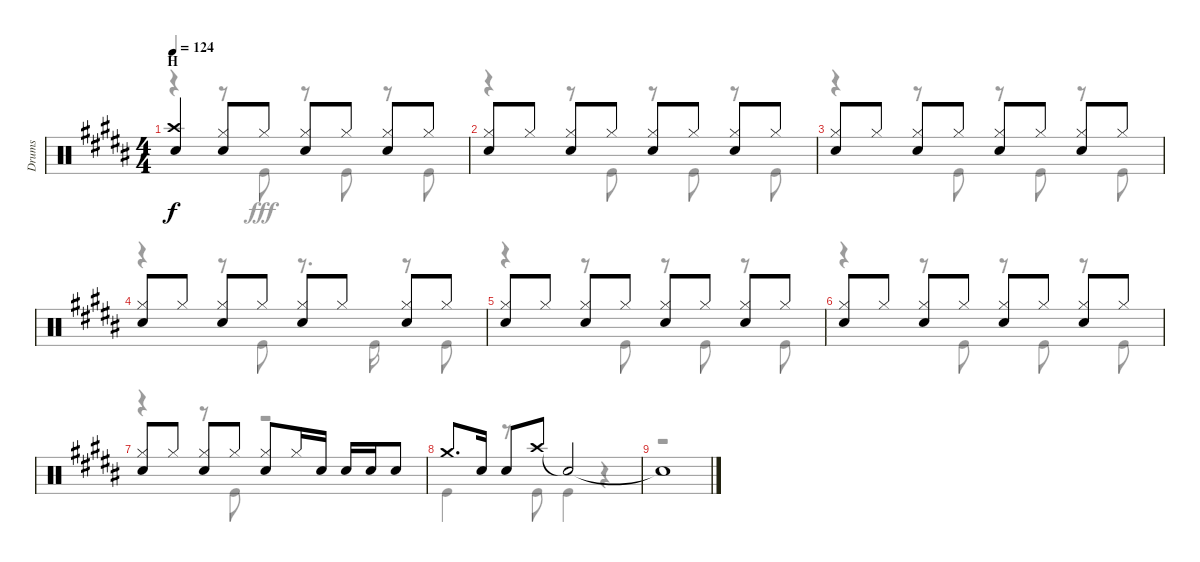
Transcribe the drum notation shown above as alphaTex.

\track ("Drums" "Drums") {instrument percussion}
\staff {score}
\articulation defaults
\voice
\ts (4 4)
\section ("" "H")
\tempo 124
\clef neutral
\ks b
("Crash high (hit)" "Snare (hit) 2").4{dy f} ("Hi-Hat (closed)" "Snare (hit) 2").8 "Hi-Hat (closed)".8 ("Hi-Hat (closed)" "Snare (hit) 2").8 "Hi-Hat (closed)".8 ("Hi-Hat (closed)" "Snare (hit) 2").8 "Hi-Hat (closed)".8 |
("Hi-Hat (closed)" "Snare (hit) 2").8 "Hi-Hat (closed)".8 ("Hi-Hat (closed)" "Snare (hit) 2").8 "Hi-Hat (closed)".8 ("Hi-Hat (closed)" "Snare (hit) 2").8 "Hi-Hat (closed)".8 ("Hi-Hat (closed)" "Snare (hit) 2").8 "Hi-Hat (closed)".8 |
("Hi-Hat (closed)" "Snare (hit) 2").8 "Hi-Hat (closed)".8 ("Hi-Hat (closed)" "Snare (hit) 2").8 "Hi-Hat (closed)".8 ("Hi-Hat (closed)" "Snare (hit) 2").8 "Hi-Hat (closed)".8 ("Hi-Hat (closed)" "Snare (hit) 2").8 "Hi-Hat (closed)".8 |
("Hi-Hat (closed)" "Snare (hit) 2").8 "Hi-Hat (closed)".8 ("Hi-Hat (closed)" "Snare (hit) 2").8 "Hi-Hat (closed)".8 ("Hi-Hat (closed)" "Snare (hit) 2").8 "Hi-Hat (closed)".8 ("Hi-Hat (closed)" "Snare (hit) 2").8 "Hi-Hat (closed)".8 |
("Hi-Hat (closed)" "Snare (hit) 2").8 "Hi-Hat (closed)".8 ("Hi-Hat (closed)" "Snare (hit) 2").8 "Hi-Hat (closed)".8 ("Hi-Hat (closed)" "Snare (hit) 2").8 "Hi-Hat (closed)".8 ("Hi-Hat (closed)" "Snare (hit) 2").8 "Hi-Hat (closed)".8 |
("Hi-Hat (closed)" "Snare (hit) 2").8 "Hi-Hat (closed)".8 ("Hi-Hat (closed)" "Snare (hit) 2").8 "Hi-Hat (closed)".8 ("Hi-Hat (closed)" "Snare (hit) 2").8 "Hi-Hat (closed)".8 ("Hi-Hat (closed)" "Snare (hit) 2").8 "Hi-Hat (closed)".8 |
("Hi-Hat (closed)" "Snare (hit) 2").8 "Hi-Hat (closed)".8 ("Hi-Hat (closed)" "Snare (hit) 2").8 "Hi-Hat (closed)".8 ("Hi-Hat (closed)" "Snare (hit) 2").8 "Hi-Hat (closed)".16 "Snare (hit) 2".16 "Snare (hit) 2".16 "Snare (hit) 2".16 "Snare (hit) 2".8 |
"Crash medium (hit)".8{d} "Snare (hit) 2".16 "Snare (hit) 2".8 "Crash high (hit)".8 "Snare (hit)"{t}.2 |
"Snare (hit)"{t}.1
\voice
\clef neutral
\ottava regular
\simile none
\ks b
r.4{dy fff} r.8 "Kick (hit)".8 r.8 "Kick (hit)".8 r.8 "Kick (hit)".8 |
r.4 r.8 "Kick (hit)".8 r.8 "Kick (hit)".8 r.8 "Kick (hit)".8 |
r.4 r.8 "Kick (hit)".8 r.8 "Kick (hit)".8 r.8 "Kick (hit)".8 |
r.4 r.8 "Kick (hit)".8 r.8{d} "Kick (hit)".16 r.8 "Kick (hit)".8 |
r.4 r.8 "Kick (hit)".8 r.8 "Kick (hit)".8 r.8 "Kick (hit)".8 |
r.4 r.8 "Kick (hit)".8 r.8 "Kick (hit)".8 r.8 "Kick (hit)".8 |
r.4 r.8 "Kick (hit)".8 r.2 |
"Kick (hit)".4 r.8 "Kick (hit)".8 "Kick (hit)".4 r.4 |
r.1
